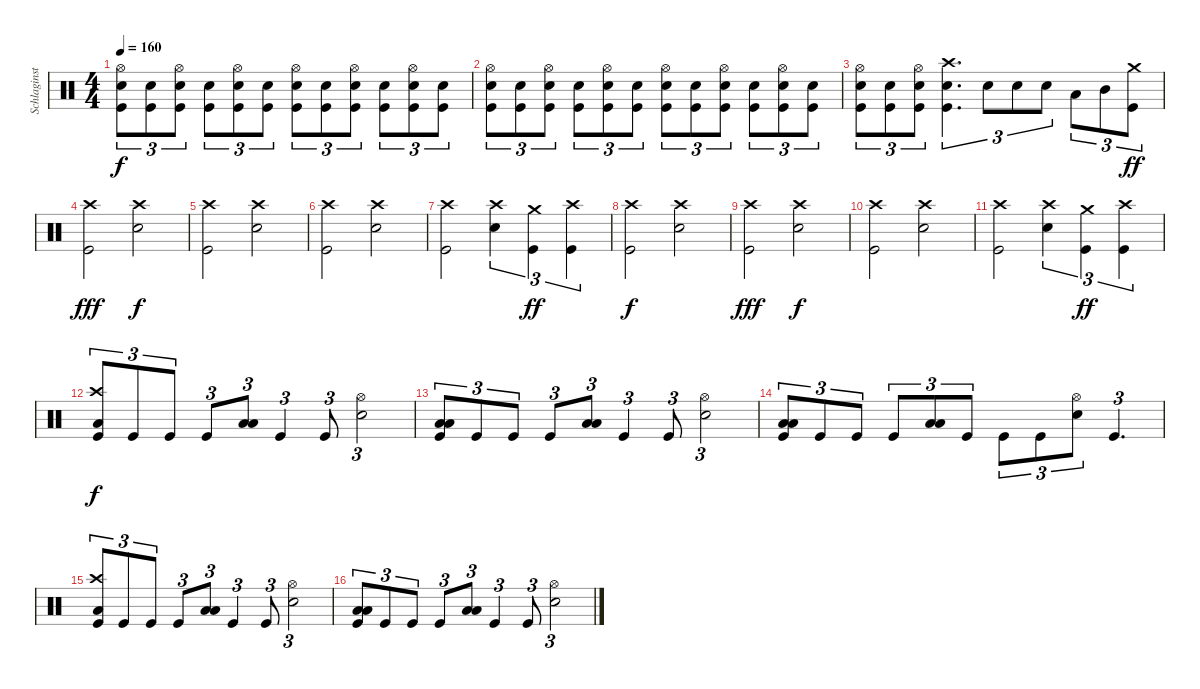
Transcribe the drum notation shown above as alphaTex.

\track ("Schlaginstrumente - Auswahl" "Schlaginst") {instrument percussion}
\staff {score}
\articulation defaults
\ts (4 4)
\tempo 160
\clef neutral
\ks c
("Hi-Hat (open)" "Electric Snare (hit)" "Kick (hit)").8{tu (3 2) dy f} ("Electric Snare (hit)" "Kick (hit)").8{tu (3 2)} ("Hi-Hat (open)" "Electric Snare (hit)" "Kick (hit)").8{tu (3 2)} ("Electric Snare (hit)" "Kick (hit)").8{tu (3 2)} ("Hi-Hat (open)" "Electric Snare (hit)" "Kick (hit)").8{tu (3 2)} ("Electric Snare (hit)" "Kick (hit)").8{tu (3 2)} ("Hi-Hat (open)" "Electric Snare (hit)" "Kick (hit)").8{tu (3 2)} ("Electric Snare (hit)" "Kick (hit)").8{tu (3 2)} ("Hi-Hat (open)" "Electric Snare (hit)" "Kick (hit)").8{tu (3 2)} ("Electric Snare (hit)" "Kick (hit)").8{tu (3 2)} ("Hi-Hat (open)" "Electric Snare (hit)" "Kick (hit)").8{tu (3 2)} ("Electric Snare (hit)" "Kick (hit)").8{tu (3 2)} |
("Hi-Hat (open)" "Electric Snare (hit)" "Kick (hit)").8{tu (3 2)} ("Electric Snare (hit)" "Kick (hit)").8{tu (3 2)} ("Hi-Hat (open)" "Electric Snare (hit)" "Kick (hit)").8{tu (3 2)} ("Electric Snare (hit)" "Kick (hit)").8{tu (3 2)} ("Hi-Hat (open)" "Electric Snare (hit)" "Kick (hit)").8{tu (3 2)} ("Electric Snare (hit)" "Kick (hit)").8{tu (3 2)} ("Hi-Hat (open)" "Electric Snare (hit)" "Kick (hit)").8{tu (3 2)} ("Electric Snare (hit)" "Kick (hit)").8{tu (3 2)} ("Hi-Hat (open)" "Electric Snare (hit)" "Kick (hit)").8{tu (3 2)} ("Electric Snare (hit)" "Kick (hit)").8{tu (3 2)} ("Hi-Hat (open)" "Electric Snare (hit)" "Kick (hit)").8{tu (3 2)} ("Electric Snare (hit)" "Kick (hit)").8{tu (3 2)} |
("Hi-Hat (open)" "Electric Snare (hit)" "Kick (hit)").8{tu (3 2)} ("Electric Snare (hit)" "Kick (hit)").8{tu (3 2)} ("Hi-Hat (open)" "Electric Snare (hit)" "Kick (hit)").8{tu (3 2)} ("Crash high (hit)" "Electric Snare (hit)" "Kick (hit)").4{d tu (3 2)} "Electric Snare (hit)".8{tu (3 2)} "Electric Snare (hit)".8{tu (3 2)} "Electric Snare (hit)".8{tu (3 2)} "Low Tom (hit)".8{tu (3 2)} "Mid Tom (hit)".8{tu (3 2)} ("Crash medium (hit)" "Kick (hit)").8{tu (3 2) dy ff} |
("Crash high (hit)" "Kick (hit)").2{dy fff} ("Crash high (hit)" "Electric Snare (hit)").2{dy f} |
("Crash high (hit)" "Kick (hit)").2 ("Crash high (hit)" "Electric Snare (hit)").2 |
("Crash high (hit)" "Kick (hit)").2 ("Crash high (hit)" "Electric Snare (hit)").2 |
("Crash high (hit)" "Kick (hit)").2 ("Crash high (hit)" "Electric Snare (hit)").4{tu (3 2)} ("Crash medium (hit)" "Kick (hit)").4{tu (3 2) dy ff} ("Crash high (hit)" "Kick (hit)").4{tu (3 2)} |
("Crash high (hit)" "Kick (hit)").2{dy f} ("Crash high (hit)" "Electric Snare (hit)").2 |
("Crash high (hit)" "Kick (hit)").2{dy fff} ("Crash high (hit)" "Electric Snare (hit)").2{dy f} |
("Crash high (hit)" "Kick (hit)").2 ("Crash high (hit)" "Electric Snare (hit)").2 |
("Crash high (hit)" "Kick (hit)").2 ("Crash high (hit)" "Electric Snare (hit)").4{tu (3 2)} ("Crash medium (hit)" "Kick (hit)").4{tu (3 2) dy ff} ("Crash high (hit)" "Kick (hit)").4{tu (3 2)} |
("Low Floor Tom (hit)" "Crash high (hit)" "Kick (hit)").8{tu (3 2) dy f} "Kick (hit)".8{tu (3 2)} "Kick (hit)".8{tu (3 2)} "Kick (hit)".8{tu (3 2)} ("Low Floor Tom (hit)" "Low Tom (hit)").8{tu (3 2)} "Kick (hit)".4{tu (3 2)} "Kick (hit)".8{tu (3 2)} ("Hi-Hat (open)" "Electric Snare (hit)").2{tu (3 2)} |
("Low Tom (hit)" "Low Floor Tom (hit)" "Kick (hit)").8{tu (3 2)} "Kick (hit)".8{tu (3 2)} "Kick (hit)".8{tu (3 2)} "Kick (hit)".8{tu (3 2)} ("Low Floor Tom (hit)" "Low Tom (hit)").8{tu (3 2)} "Kick (hit)".4{tu (3 2)} "Kick (hit)".8{tu (3 2)} ("Hi-Hat (open)" "Electric Snare (hit)").2{tu (3 2)} |
("Low Tom (hit)" "Low Floor Tom (hit)" "Kick (hit)").8{tu (3 2)} "Kick (hit)".8{tu (3 2)} "Kick (hit)".8{tu (3 2)} "Kick (hit)".8{tu (3 2)} ("Low Floor Tom (hit)" "Low Tom (hit)").8{tu (3 2)} "Kick (hit)".8{tu (3 2)} "Kick (hit)".8{tu (3 2)} "Kick (hit)".8{tu (3 2)} ("Hi-Hat (open)" "Electric Snare (hit)").8{tu (3 2)} "Kick (hit)".4{d tu (3 2)} |
("Low Floor Tom (hit)" "Crash high (hit)" "Kick (hit)").8{tu (3 2)} "Kick (hit)".8{tu (3 2)} "Kick (hit)".8{tu (3 2)} "Kick (hit)".8{tu (3 2)} ("Low Floor Tom (hit)" "Low Tom (hit)").8{tu (3 2)} "Kick (hit)".4{tu (3 2)} "Kick (hit)".8{tu (3 2)} ("Hi-Hat (open)" "Electric Snare (hit)").2{tu (3 2)} |
("Low Tom (hit)" "Low Floor Tom (hit)" "Kick (hit)").8{tu (3 2)} "Kick (hit)".8{tu (3 2)} "Kick (hit)".8{tu (3 2)} "Kick (hit)".8{tu (3 2)} ("Low Floor Tom (hit)" "Low Tom (hit)").8{tu (3 2)} "Kick (hit)".4{tu (3 2)} "Kick (hit)".8{tu (3 2)} ("Hi-Hat (open)" "Electric Snare (hit)").2{tu (3 2)}
